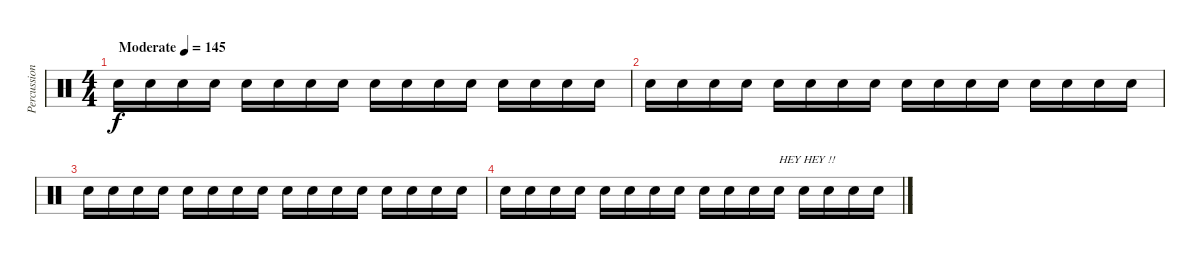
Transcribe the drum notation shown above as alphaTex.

\track ("Percussions" "Percussion") {instrument percussion}
\staff {score}
\articulation defaults
\ts (4 4)
\tempo (145 "Moderate")
\clef neutral
\ks c "Electric Snare (hit)".16{dy f} "Electric Snare (hit)".16 "Electric Snare (hit)".16 "Electric Snare (hit)".16 "Electric Snare (hit)".16 "Electric Snare (hit)".16 "Electric Snare (hit)".16 "Electric Snare (hit)".16 "Electric Snare (hit)".16 "Electric Snare (hit)".16 "Electric Snare (hit)".16 "Electric Snare (hit)".16 "Electric Snare (hit)".16 "Electric Snare (hit)".16 "Electric Snare (hit)".16 "Electric Snare (hit)".16
|
"Electric Snare (hit)".16 "Electric Snare (hit)".16 "Electric Snare (hit)".16 "Electric Snare (hit)".16 "Electric Snare (hit)".16 "Electric Snare (hit)".16 "Electric Snare (hit)".16 "Electric Snare (hit)".16 "Electric Snare (hit)".16 "Electric Snare (hit)".16 "Electric Snare (hit)".16 "Electric Snare (hit)".16 "Electric Snare (hit)".16 "Electric Snare (hit)".16 "Electric Snare (hit)".16 "Electric Snare (hit)".16 |
"Electric Snare (hit)".16 "Electric Snare (hit)".16 "Electric Snare (hit)".16 "Electric Snare (hit)".16 "Electric Snare (hit)".16 "Electric Snare (hit)".16 "Electric Snare (hit)".16 "Electric Snare (hit)".16 "Electric Snare (hit)".16 "Electric Snare (hit)".16 "Electric Snare (hit)".16 "Electric Snare (hit)".16 "Electric Snare (hit)".16 "Electric Snare (hit)".16 "Electric Snare (hit)".16 "Electric Snare (hit)".16 |
"Electric Snare (hit)".16 "Electric Snare (hit)".16 "Electric Snare (hit)".16 "Electric Snare (hit)".16 "Electric Snare (hit)".16 "Electric Snare (hit)".16 "Electric Snare (hit)".16 "Electric Snare (hit)".16 "Electric Snare (hit)".16 "Electric Snare (hit)".16 "Electric Snare (hit)".16 "Electric Snare (hit)".16{txt "HEY HEY !!"} "Electric Snare (hit)".16 "Electric Snare (hit)".16 "Electric Snare (hit)".16 "Electric Snare (hit)".16
